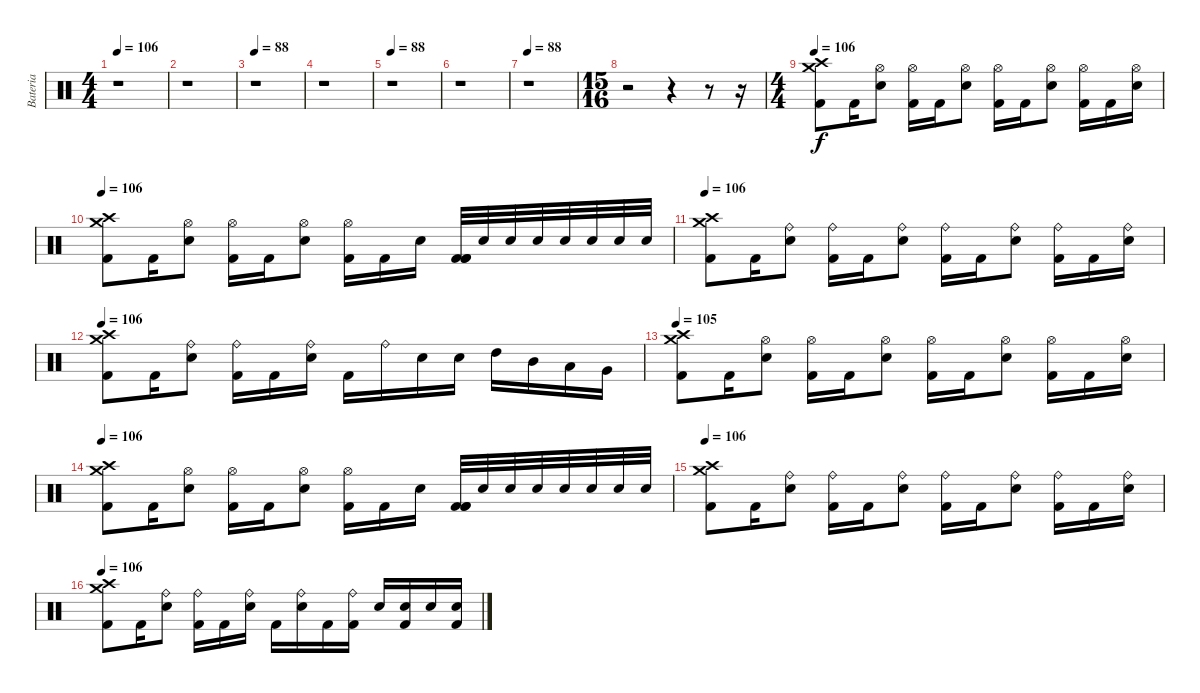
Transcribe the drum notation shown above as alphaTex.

\track ("Bateria" "Bateria") {instrument percussion}
\staff {score}
\articulation defaults
\ts (4 4)
\tempo 106
\tempo 88
\tempo 106
\clef neutral
\ks c
r.1{dy f} |
r.1 |
\tempo 88
r.1 |
r.1 |
\tempo 88
r.1 |
r.1 |
\tempo 88
r.1 |
\ts (15 16)
r.2 r.4 r.8 r.16 |
\ts (4 4)
\tempo 106
("Crash medium (hit)" "Crash high (hit)" "Kick (hit) 2").8 "Kick (hit) 2".16 ("Hi-Hat (open)" "Electric Snare (hit)").8 ("Hi-Hat (open)" "Kick (hit) 2").16 "Kick (hit) 2".16 ("Hi-Hat (open)" "Electric Snare (hit)").8 ("Hi-Hat (open)" "Kick (hit) 2").16 "Kick (hit) 2".16 ("Hi-Hat (open)" "Electric Snare (hit)").8 ("Hi-Hat (open)" "Kick (hit) 2").16 "Kick (hit) 2".16 ("Hi-Hat (open)" "Electric Snare (hit)").16 |
\tempo 106
("Crash medium (hit)" "Crash high (hit)" "Kick (hit) 2").8 "Kick (hit) 2".16 ("Hi-Hat (open)" "Electric Snare (hit)").8 ("Hi-Hat (open)" "Kick (hit) 2").16 "Kick (hit) 2".16 ("Hi-Hat (open)" "Electric Snare (hit)").8 ("Hi-Hat (open)" "Kick (hit) 2").16 "Kick (hit) 2".16 "Electric Snare (hit)".16 ("Kick (hit) 2" "Kick (hit) 2" "Kick (hit) 2").32 "Electric Snare (hit)".32 "Electric Snare (hit)".32 "Electric Snare (hit)".32 "Electric Snare (hit)".32 "Electric Snare (hit)".32 "Electric Snare (hit)".32 "Electric Snare (hit)".32 |
\tempo 106
("Crash medium (hit)" "Crash high (hit)" "Kick (hit) 2").8 "Kick (hit) 2".16 ("Ride (bell)" "Electric Snare (hit)").8 ("Ride (bell)" "Kick (hit) 2").16 "Kick (hit) 2".16 ("Ride (bell)" "Electric Snare (hit)").8 ("Ride (bell)" "Kick (hit) 2").16 "Kick (hit) 2".16 ("Ride (bell)" "Electric Snare (hit)").8 ("Ride (bell)" "Kick (hit) 2").16 "Kick (hit) 2".16 ("Ride (bell)" "Electric Snare (hit)").16 |
\tempo 106
("Crash medium (hit)" "Crash high (hit)" "Kick (hit) 2").8 "Kick (hit) 2".16 ("Ride (bell)" "Electric Snare (hit)").8 ("Ride (bell)" "Kick (hit) 2").16 "Kick (hit) 2".16 ("Ride (bell)" "Electric Snare (hit)").16 "Kick (hit) 2".16 "Ride (bell)".16 "Electric Snare (hit)".16 "Electric Snare (hit)".16 "High Tom (hit)".16 "Mid Tom (hit)".16 "Low Tom (hit)".16 "Very Low Tom (hit)".16 |
\tempo 105
("Crash medium (hit)" "Crash high (hit)" "Kick (hit) 2").8 "Kick (hit) 2".16 ("Hi-Hat (open)" "Electric Snare (hit)").8 ("Hi-Hat (open)" "Kick (hit) 2").16 "Kick (hit) 2".16 ("Hi-Hat (open)" "Electric Snare (hit)").8 ("Hi-Hat (open)" "Kick (hit) 2").16 "Kick (hit) 2".16 ("Hi-Hat (open)" "Electric Snare (hit)").8 ("Hi-Hat (open)" "Kick (hit) 2").16 "Kick (hit) 2".16 ("Hi-Hat (open)" "Electric Snare (hit)").16 |
\tempo 106
("Crash medium (hit)" "Crash high (hit)" "Kick (hit) 2").8 "Kick (hit) 2".16 ("Hi-Hat (open)" "Electric Snare (hit)").8 ("Hi-Hat (open)" "Kick (hit) 2").16 "Kick (hit) 2".16 ("Hi-Hat (open)" "Electric Snare (hit)").8 ("Hi-Hat (open)" "Kick (hit) 2").16 "Kick (hit) 2".16 "Electric Snare (hit)".16 ("Kick (hit) 2" "Kick (hit) 2" "Kick (hit) 2").32 "Electric Snare (hit)".32 "Electric Snare (hit)".32 "Electric Snare (hit)".32 "Electric Snare (hit)".32 "Electric Snare (hit)".32 "Electric Snare (hit)".32 "Electric Snare (hit)".32 |
\tempo 106
("Crash medium (hit)" "Crash high (hit)" "Kick (hit) 2").8 "Kick (hit) 2".16 ("Ride (bell)" "Electric Snare (hit)").8 ("Ride (bell)" "Kick (hit) 2").16 "Kick (hit) 2".16 ("Ride (bell)" "Electric Snare (hit)").8 ("Ride (bell)" "Kick (hit) 2").16 "Kick (hit) 2".16 ("Ride (bell)" "Electric Snare (hit)").8 ("Ride (bell)" "Kick (hit) 2").16 "Kick (hit) 2".16 ("Ride (bell)" "Electric Snare (hit)").16 |
\tempo 106
("Crash medium (hit)" "Crash high (hit)" "Kick (hit) 2").8 "Kick (hit) 2".16 ("Ride (bell)" "Electric Snare (hit)").8 ("Ride (bell)" "Kick (hit) 2").16 "Kick (hit) 2".16 ("Ride (bell)" "Electric Snare (hit)").16 "Kick (hit) 2".16 ("Ride (bell)" "Electric Snare (hit)").16 "Kick (hit) 2".16 ("Ride (bell)" "Kick (hit) 2").16 "Electric Snare (hit)".16 ("Electric Snare (hit)" "Kick (hit) 2").16 "Electric Snare (hit)".16 ("Electric Snare (hit)" "Kick (hit) 2").16
